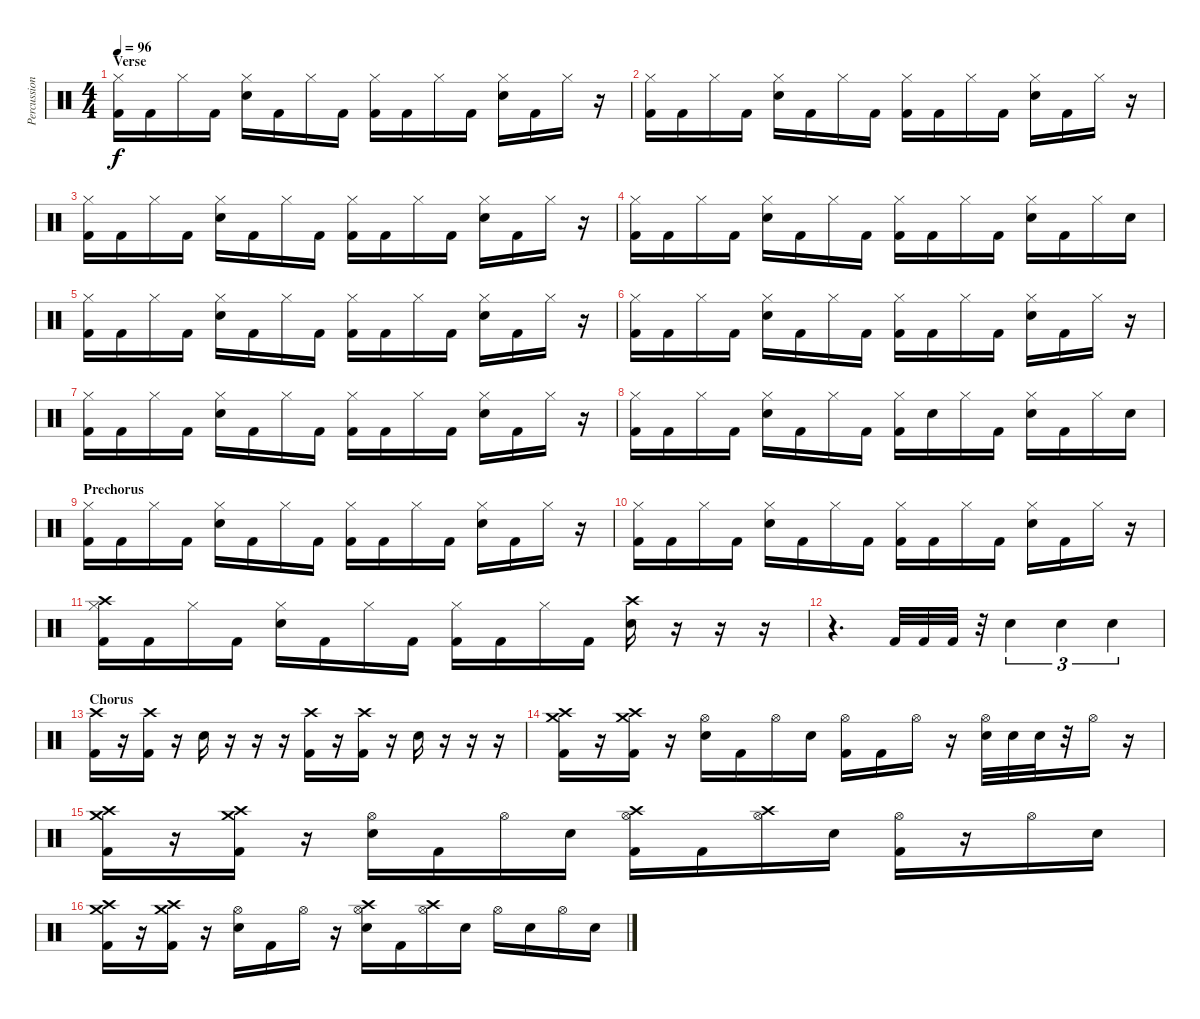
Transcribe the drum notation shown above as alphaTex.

\track ("Percussions" "Percussion") {instrument percussion}
\staff {score}
\articulation defaults
\ts (4 4)
\section ("" "Verse")
\tempo 96
\clef neutral
\ks c
("Hi-Hat (closed)" "Kick (hit) 2").16{dy f} "Kick (hit) 2".16 "Hi-Hat (closed)".16 "Kick (hit) 2".16 ("Hi-Hat (closed)" "Snare (hit) 2").16 "Kick (hit) 2".16 "Hi-Hat (closed)".16 "Kick (hit) 2".16 ("Hi-Hat (closed)" "Kick (hit) 2").16 "Kick (hit) 2".16 "Hi-Hat (closed)".16 "Kick (hit) 2".16 ("Hi-Hat (closed)" "Snare (hit) 2").16 "Kick (hit) 2".16 "Hi-Hat (closed)".16 r.16 |
("Hi-Hat (closed)" "Kick (hit) 2").16 "Kick (hit) 2".16 "Hi-Hat (closed)".16 "Kick (hit) 2".16 ("Hi-Hat (closed)" "Snare (hit) 2").16 "Kick (hit) 2".16 "Hi-Hat (closed)".16 "Kick (hit) 2".16 ("Hi-Hat (closed)" "Kick (hit) 2").16 "Kick (hit) 2".16 "Hi-Hat (closed)".16 "Kick (hit) 2".16 ("Hi-Hat (closed)" "Snare (hit) 2").16 "Kick (hit) 2".16 "Hi-Hat (closed)".16 r.16 |
("Hi-Hat (closed)" "Kick (hit) 2").16 "Kick (hit) 2".16 "Hi-Hat (closed)".16 "Kick (hit) 2".16 ("Hi-Hat (closed)" "Snare (hit) 2").16 "Kick (hit) 2".16 "Hi-Hat (closed)".16 "Kick (hit) 2".16 ("Hi-Hat (closed)" "Kick (hit) 2").16 "Kick (hit) 2".16 "Hi-Hat (closed)".16 "Kick (hit) 2".16 ("Hi-Hat (closed)" "Snare (hit) 2").16 "Kick (hit) 2".16 "Hi-Hat (closed)".16 r.16 |
("Hi-Hat (closed)" "Kick (hit) 2").16 "Kick (hit) 2".16 "Hi-Hat (closed)".16 "Kick (hit) 2".16 ("Hi-Hat (closed)" "Snare (hit) 2").16 "Kick (hit) 2".16 "Hi-Hat (closed)".16 "Kick (hit) 2".16 ("Hi-Hat (closed)" "Kick (hit) 2").16 "Kick (hit) 2".16 "Hi-Hat (closed)".16 "Kick (hit) 2".16 ("Hi-Hat (closed)" "Snare (hit) 2").16 "Kick (hit) 2".16 "Hi-Hat (closed)".16 "Snare (hit) 2".16 |
("Hi-Hat (closed)" "Kick (hit) 2").16 "Kick (hit) 2".16 "Hi-Hat (closed)".16 "Kick (hit) 2".16 ("Hi-Hat (closed)" "Snare (hit) 2").16 "Kick (hit) 2".16 "Hi-Hat (closed)".16 "Kick (hit) 2".16 ("Hi-Hat (closed)" "Kick (hit) 2").16 "Kick (hit) 2".16 "Hi-Hat (closed)".16 "Kick (hit) 2".16 ("Hi-Hat (closed)" "Snare (hit) 2").16 "Kick (hit) 2".16 "Hi-Hat (closed)".16 r.16 |
("Hi-Hat (closed)" "Kick (hit) 2").16 "Kick (hit) 2".16 "Hi-Hat (closed)".16 "Kick (hit) 2".16 ("Hi-Hat (closed)" "Snare (hit) 2").16 "Kick (hit) 2".16 "Hi-Hat (closed)".16 "Kick (hit) 2".16 ("Hi-Hat (closed)" "Kick (hit) 2").16 "Kick (hit) 2".16 "Hi-Hat (closed)".16 "Kick (hit) 2".16 ("Hi-Hat (closed)" "Snare (hit) 2").16 "Kick (hit) 2".16 "Hi-Hat (closed)".16 r.16 |
("Hi-Hat (closed)" "Kick (hit) 2").16 "Kick (hit) 2".16 "Hi-Hat (closed)".16 "Kick (hit) 2".16 ("Hi-Hat (closed)" "Snare (hit) 2").16 "Kick (hit) 2".16 "Hi-Hat (closed)".16 "Kick (hit) 2".16 ("Hi-Hat (closed)" "Kick (hit) 2").16 "Kick (hit) 2".16 "Hi-Hat (closed)".16 "Kick (hit) 2".16 ("Hi-Hat (closed)" "Snare (hit) 2").16 "Kick (hit) 2".16 "Hi-Hat (closed)".16 r.16 |
("Hi-Hat (closed)" "Kick (hit) 2").16 "Kick (hit) 2".16 "Hi-Hat (closed)".16 "Kick (hit) 2".16 ("Hi-Hat (closed)" "Snare (hit) 2").16 "Kick (hit) 2".16 "Hi-Hat (closed)".16 "Kick (hit) 2".16 ("Hi-Hat (closed)" "Kick (hit) 2").16 "Snare (hit) 2".16 "Hi-Hat (closed)".16 "Kick (hit) 2".16 ("Hi-Hat (closed)" "Snare (hit) 2").16 "Kick (hit) 2".16 "Hi-Hat (closed)".16 "Snare (hit) 2".16 |
\section ("" "Prechorus")
("Hi-Hat (closed)" "Kick (hit) 2").16 "Kick (hit) 2".16 "Hi-Hat (closed)".16 "Kick (hit) 2".16 ("Hi-Hat (closed)" "Snare (hit) 2").16 "Kick (hit) 2".16 "Hi-Hat (closed)".16 "Kick (hit) 2".16 ("Hi-Hat (closed)" "Kick (hit) 2").16 "Kick (hit) 2".16 "Hi-Hat (closed)".16 "Kick (hit) 2".16 ("Hi-Hat (closed)" "Snare (hit) 2").16 "Kick (hit) 2".16 "Hi-Hat (closed)".16 r.16 |
("Hi-Hat (closed)" "Kick (hit) 2").16 "Kick (hit) 2".16 "Hi-Hat (closed)".16 "Kick (hit) 2".16 ("Hi-Hat (closed)" "Snare (hit) 2").16 "Kick (hit) 2".16 "Hi-Hat (closed)".16 "Kick (hit) 2".16 ("Hi-Hat (closed)" "Kick (hit) 2").16 "Kick (hit) 2".16 "Hi-Hat (closed)".16 "Kick (hit) 2".16 ("Hi-Hat (closed)" "Snare (hit) 2").16 "Kick (hit) 2".16 "Hi-Hat (closed)".16 r.16 |
("Crash high (hit)" "Hi-Hat (closed)" "Kick (hit) 2").16 "Kick (hit) 2".16 "Hi-Hat (closed)".16 "Kick (hit) 2".16 ("Hi-Hat (closed)" "Snare (hit) 2").16 "Kick (hit) 2".16 "Hi-Hat (closed)".16 "Kick (hit) 2".16 ("Hi-Hat (closed)" "Kick (hit) 2").16 "Kick (hit) 2".16 "Hi-Hat (closed)".16 "Kick (hit) 2".16 ("Crash high (hit)" "Snare (hit) 2").16 r.16 r.16 r.16 |
r.4{d} "Kick (hit) 2".32 "Kick (hit) 2".32 "Kick (hit) 2".32 r.32 "Snare (hit) 2".4{tu (3 2)} "Snare (hit) 2".4{tu (3 2)} "Snare (hit) 2".4{tu (3 2)} |
\section ("" "Chorus")
("Crash high (hit)" "Kick (hit) 2").16 r.16 ("Crash high (hit)" "Kick (hit) 2").16 r.16 "Snare (hit) 2".16 r.16 r.16 r.16 ("Crash high (hit)" "Kick (hit) 2").16 r.16 ("Crash high (hit)" "Kick (hit) 2").16 r.16 "Snare (hit) 2".16 r.16 r.16 r.16 |
("Crash high (hit)" "Crash medium (hit)" "Kick (hit) 2").16 r.16 ("Crash high (hit)" "Crash medium (hit)" "Kick (hit) 2").16 r.16 ("Hi-Hat (open)" "Snare (hit) 2").16 "Kick (hit) 2".16 "Hi-Hat (open)".16 "Snare (hit) 2".16 ("Hi-Hat (open)" "Kick (hit) 2").16 "Kick (hit) 2".16 "Hi-Hat (open)".16 r.16 ("Hi-Hat (open)" "Snare (hit) 2").32 "Snare (hit) 2".32 "Snare (hit) 2".32 r.32 "Hi-Hat (open)".16 r.16 |
("Crash high (hit)" "Crash medium (hit)" "Kick (hit) 2").16 r.16 ("Crash high (hit)" "Crash medium (hit)" "Kick (hit) 2").16 r.16 ("Hi-Hat (open)" "Snare (hit) 2").16 "Kick (hit) 2".16 "Hi-Hat (open)".16 "Snare (hit) 2".16 ("Crash high (hit)" "Hi-Hat (open)" "Kick (hit) 2").16 "Kick (hit) 2".16 ("Crash high (hit)" "Hi-Hat (open)").16 "Snare (hit) 2".16 ("Hi-Hat (open)" "Kick (hit) 2").16 r.16 "Hi-Hat (open)".16 "Snare (hit) 2".16 |
("Crash high (hit)" "Crash medium (hit)" "Kick (hit) 2").16 r.16 ("Crash high (hit)" "Crash medium (hit)" "Kick (hit) 2").16 r.16 ("Hi-Hat (open)" "Snare (hit) 2").16 "Kick (hit) 2".16 "Hi-Hat (open)".16 r.16 ("Crash high (hit)" "Hi-Hat (open)" "Snare (hit) 2").16 "Kick (hit) 2".16 ("Crash high (hit)" "Hi-Hat (open)").16 "Snare (hit) 2".16 "Hi-Hat (open)".16 "Snare (hit) 2".16 "Hi-Hat (open)".16 "Snare (hit) 2".16
